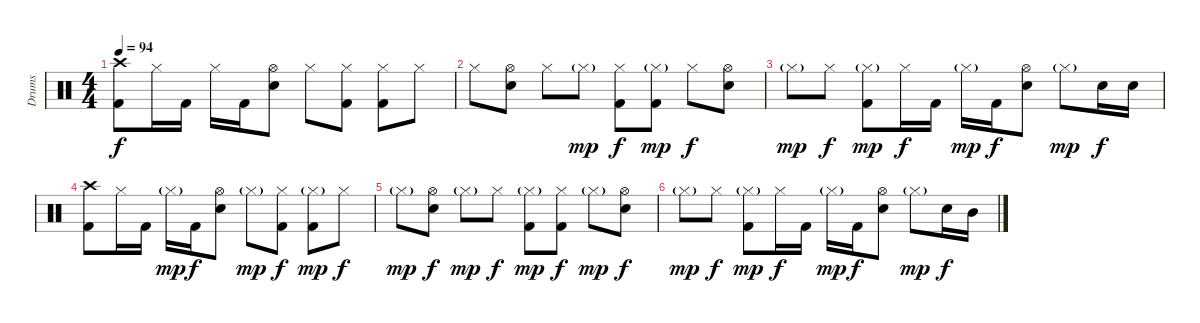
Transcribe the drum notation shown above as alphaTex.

\track ("Drums" "Drums") {instrument percussion}
\staff {score}
\articulation defaults
\ts (4 4)
\tempo 94
\clef neutral
\ks c
("Crash high (hit)" "Kick (hit) 2").8{dy f} "Hi-Hat (closed)".16 "Kick (hit) 2".16 "Hi-Hat (closed)".16 "Kick (hit) 2".16 ("Hi-Hat (open)" "Electric Snare (hit)").8 "Hi-Hat (closed)".8 ("Hi-Hat (closed)" "Kick (hit) 2").8 ("Hi-Hat (closed)" "Kick (hit) 2").8 "Hi-Hat (closed)".8 |
"Hi-Hat (closed)".8 ("Hi-Hat (open)" "Electric Snare (hit)").8 "Hi-Hat (closed)".8 "Hi-Hat (closed)"{g}.8{dy mp} ("Hi-Hat (closed)" "Kick (hit) 2").8{dy f} ("Hi-Hat (closed)"{g} "Kick (hit) 2").8{dy mp} "Hi-Hat (closed)".8{dy f} ("Hi-Hat (open)" "Electric Snare (hit)").8 |
"Hi-Hat (closed)"{g}.8{dy mp} "Hi-Hat (closed)".8{dy f} ("Hi-Hat (closed)"{g} "Kick (hit) 2").8{dy mp} "Hi-Hat (closed)".16{dy f} "Kick (hit) 2".16 "Hi-Hat (closed)"{g}.16{dy mp} "Kick (hit) 2".16{dy f} ("Hi-Hat (open)" "Electric Snare (hit)").8 "Hi-Hat (closed)"{g}.8{dy mp} "Electric Snare (hit)".16{dy f} "Electric Snare (hit)".16 |
("Crash high (hit)" "Kick (hit) 2").8 "Hi-Hat (closed)".16 "Kick (hit) 2".16 "Hi-Hat (closed)"{g}.16{dy mp} "Kick (hit) 2".16{dy f} ("Hi-Hat (open)" "Electric Snare (hit)").8 "Hi-Hat (closed)"{g}.8{dy mp} ("Hi-Hat (closed)" "Kick (hit) 2").8{dy f} ("Hi-Hat (closed)"{g} "Kick (hit) 2").8{dy mp} "Hi-Hat (closed)".8{dy f} |
"Hi-Hat (closed)"{g}.8{dy mp} ("Hi-Hat (open)" "Electric Snare (hit)").8{dy f} "Hi-Hat (closed)"{g}.8{dy mp} "Hi-Hat (closed)".8{dy f} ("Hi-Hat (closed)"{g} "Kick (hit) 2").8{dy mp} ("Hi-Hat (closed)" "Kick (hit) 2").8{dy f} "Hi-Hat (closed)"{g}.8{dy mp} ("Hi-Hat (open)" "Electric Snare (hit)").8{dy f} |
"Hi-Hat (closed)"{g}.8{dy mp} "Hi-Hat (closed)".8{dy f} ("Hi-Hat (closed)"{g} "Kick (hit) 2").8{dy mp} "Hi-Hat (closed)".16{dy f} "Kick (hit) 2".16 "Hi-Hat (closed)"{g}.16{dy mp} "Kick (hit) 2".16{dy f} ("Hi-Hat (open)" "Electric Snare (hit)").8 "Hi-Hat (closed)"{g}.8{dy mp} "Electric Snare (hit)".16{dy f} "Mid Tom (hit)".16
